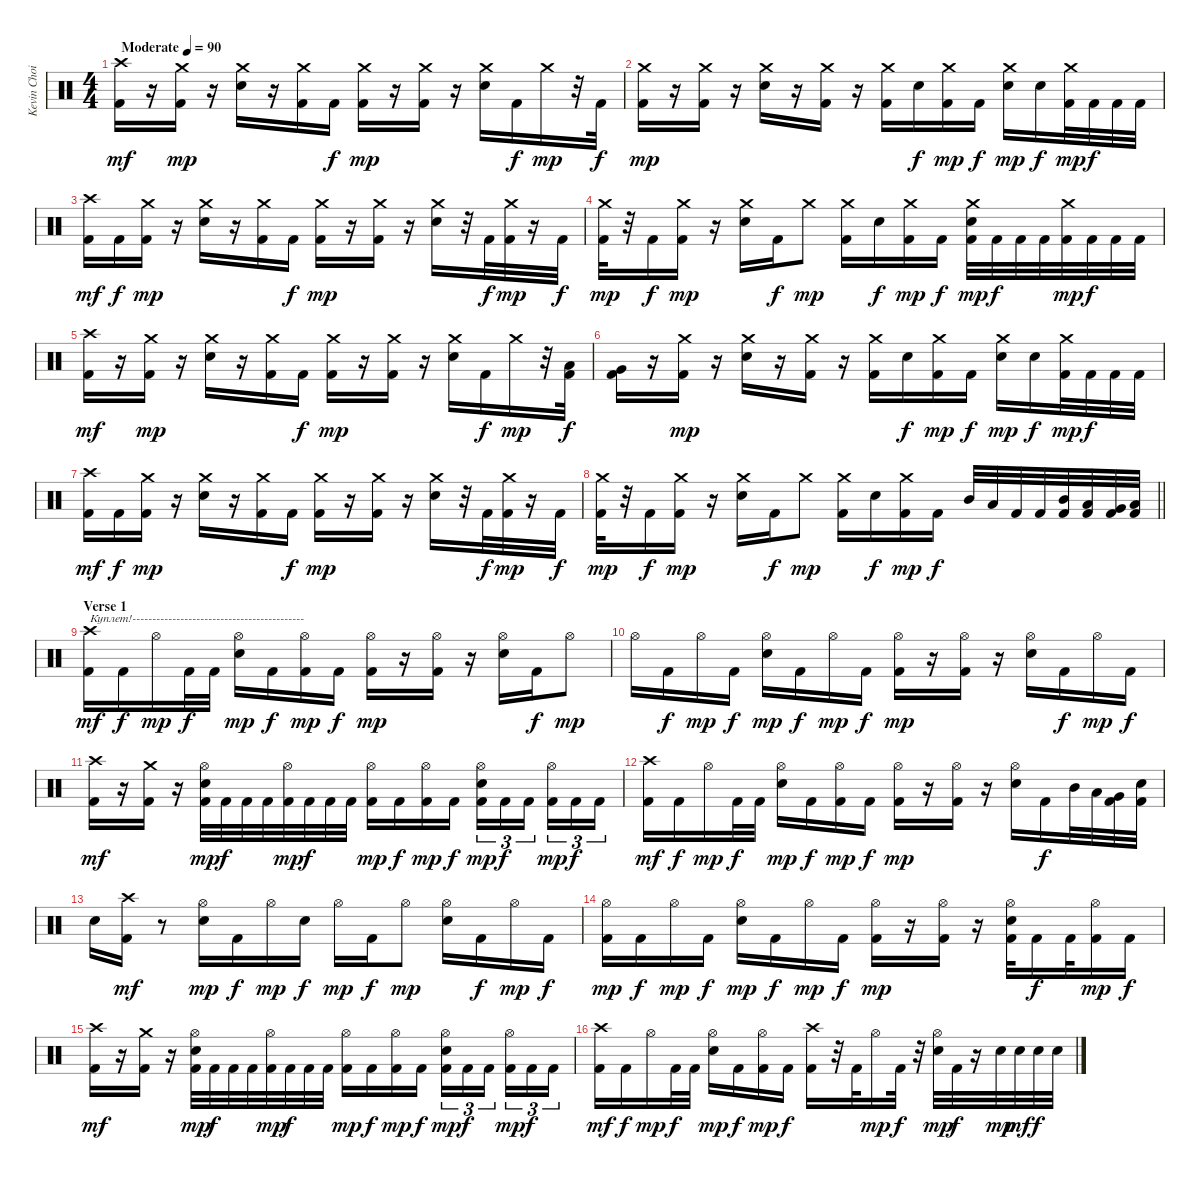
\track ("Kevin Choiral" "Kevin Choi") {instrument percussion}
\staff
\articulation defaults
\ts (4 4)
\tempo (90 "Moderate")
\clef neutral
\ks c
("Crash high (hit)" "Kick (hit) 2").16{dy mf} r.16 ("Crash medium (hit)" "Kick (hit) 2").16{dy mp} r.16 ("Crash medium (hit)" "Electric Snare (hit)").16 r.16 ("Crash medium (hit)" "Kick (hit) 2").16 "Kick (hit) 2".16{dy f} ("Crash medium (hit)" "Kick (hit) 2").16{dy mp} r.16 ("Crash medium (hit)" "Kick (hit) 2").16 r.16 ("Crash medium (hit)" "Electric Snare (hit)").16 "Kick (hit) 2".16{dy f} "Crash medium (hit)".16{dy mp} r.32 "Kick (hit) 2".32{dy f} |
("Crash medium (hit)" "Kick (hit) 2").16{dy mp} r.16 ("Crash medium (hit)" "Kick (hit) 2").16 r.16 ("Crash medium (hit)" "Electric Snare (hit)").16 r.16 ("Crash medium (hit)" "Kick (hit) 2").16 r.16 ("Crash medium (hit)" "Kick (hit) 2").16 "Electric Snare (hit)".16{dy f} ("Crash medium (hit)" "Kick (hit) 2").16{dy mp} "Kick (hit) 2".16{dy f} ("Crash medium (hit)" "Electric Snare (hit)").16{dy mp} "Electric Snare (hit)".16{dy f} ("Crash medium (hit)" "Kick (hit) 2").32{dy mp} "Kick (hit) 2".32{dy f} "Kick (hit) 2".32 "Kick (hit) 2".32 |
("Crash high (hit)" "Kick (hit) 2").16{dy mf} "Kick (hit) 2".16{dy f} ("Crash medium (hit)" "Kick (hit) 2").16{dy mp} r.16 ("Crash medium (hit)" "Electric Snare (hit)").16 r.16 ("Crash medium (hit)" "Kick (hit) 2").16 "Kick (hit) 2".16{dy f} ("Crash medium (hit)" "Kick (hit) 2").16{dy mp} r.16 ("Crash medium (hit)" "Kick (hit) 2").16 r.16 ("Crash medium (hit)" "Electric Snare (hit)").16 r.32 "Kick (hit) 2".32{dy f} ("Crash medium (hit)" "Kick (hit) 2").32{dy mp} r.16 "Kick (hit) 2".32{dy f} |
("Crash medium (hit)" "Kick (hit) 2").32{dy mp} r.32 "Kick (hit) 2".16{dy f} ("Crash medium (hit)" "Kick (hit) 2").16{dy mp} r.16 ("Crash medium (hit)" "Electric Snare (hit)").16 "Kick (hit) 2".16{dy f} "Crash medium (hit)".8{dy mp} ("Crash medium (hit)" "Kick (hit) 2").16 "Electric Snare (hit)".16{dy f} ("Crash medium (hit)" "Kick (hit) 2").16{dy mp} "Kick (hit) 2".16{dy f} ("Crash medium (hit)" "Electric Snare (hit)" "Kick (hit) 2").32{dy mp} "Kick (hit) 2".32{dy f} "Kick (hit) 2".32 "Kick (hit) 2".32 ("Crash medium (hit)" "Kick (hit) 2").32{dy mp} "Kick (hit) 2".32{dy f} "Kick (hit) 2".32 "Kick (hit) 2".32 |
("Crash high (hit)" "Kick (hit) 2").16{dy mf} r.16 ("Crash medium (hit)" "Kick (hit) 2").16{dy mp} r.16 ("Crash medium (hit)" "Electric Snare (hit)").16 r.16 ("Crash medium (hit)" "Kick (hit) 2").16 "Kick (hit) 2".16{dy f} ("Crash medium (hit)" "Kick (hit) 2").16{dy mp} r.16 ("Crash medium (hit)" "Kick (hit) 2").16 r.16 ("Crash medium (hit)" "Electric Snare (hit)").16 "Kick (hit) 2".16{dy f} "Crash medium (hit)".16{dy mp} r.32 ("Low Tom (hit)" "Kick (hit) 2").32{dy f} |
("Very Low Tom (hit)" "Kick (hit) 2").16 r.16 ("Crash medium (hit)" "Kick (hit) 2").16{dy mp} r.16 ("Crash medium (hit)" "Electric Snare (hit)").16 r.16 ("Crash medium (hit)" "Kick (hit) 2").16 r.16 ("Crash medium (hit)" "Kick (hit) 2").16 "Electric Snare (hit)".16{dy f} ("Crash medium (hit)" "Kick (hit) 2").16{dy mp} "Kick (hit) 2".16{dy f} ("Crash medium (hit)" "Electric Snare (hit)").16{dy mp} "Electric Snare (hit)".16{dy f} ("Crash medium (hit)" "Kick (hit) 2").32{dy mp} "Kick (hit) 2".32{dy f} "Kick (hit) 2".32 "Kick (hit) 2".32 |
("Crash high (hit)" "Kick (hit) 2").16{dy mf} "Kick (hit) 2".16{dy f} ("Crash medium (hit)" "Kick (hit) 2").16{dy mp} r.16 ("Crash medium (hit)" "Electric Snare (hit)").16 r.16 ("Crash medium (hit)" "Kick (hit) 2").16 "Kick (hit) 2".16{dy f} ("Crash medium (hit)" "Kick (hit) 2").16{dy mp} r.16 ("Crash medium (hit)" "Kick (hit) 2").16 r.16 ("Crash medium (hit)" "Electric Snare (hit)").16 r.32 "Kick (hit) 2".32{dy f} ("Crash medium (hit)" "Kick (hit) 2").32{dy mp} r.16 "Kick (hit) 2".32{dy f} |
\barLineRight lightlight
("Crash medium (hit)" "Kick (hit) 2").32{dy mp} r.32 "Kick (hit) 2".16{dy f} ("Crash medium (hit)" "Kick (hit) 2").16{dy mp} r.16 ("Crash medium (hit)" "Electric Snare (hit)").16 "Kick (hit) 2".16{dy f} "Crash medium (hit)".8{dy mp} ("Crash medium (hit)" "Kick (hit) 2").16 "Electric Snare (hit)".16{dy f} ("Crash medium (hit)" "Kick (hit) 2").16{dy mp} "Kick (hit) 2".16{dy f} "Mid Tom (hit)".32 "Low Tom (hit)".32 "Kick (hit) 2".32 "Kick (hit) 2".32 ("Mid Tom (hit)" "Kick (hit) 2").32 ("Low Tom (hit)" "Kick (hit) 2").32 ("Very Low Tom (hit)" "Kick (hit) 2").32 ("Low Floor Tom (hit)" "Kick (hit) 2").32 |
\section ("" "Verse 1")
("Crash high (hit)" "Kick (hit) 2").16{txt "Куплет!-------------------------------------------" dy mf} "Kick (hit) 2".16{dy f} "Hi-Hat (open)".16{dy mp} "Kick (hit) 2".32{dy f} "Kick (hit) 2".32 ("Hi-Hat (open)" "Electric Snare (hit)").16{dy mp} "Kick (hit) 2".16{dy f} ("Hi-Hat (open)" "Kick (hit) 2").16{dy mp} "Kick (hit) 2".16{dy f} ("Hi-Hat (open)" "Kick (hit) 2").16{dy mp} r.16 ("Hi-Hat (open)" "Kick (hit) 2").16 r.16 ("Hi-Hat (open)" "Electric Snare (hit)").16 "Kick (hit) 2".16{dy f} "Hi-Hat (open)".8{dy mp} |
"Hi-Hat (open)".16 "Kick (hit) 2".16{dy f} "Hi-Hat (open)".16{dy mp} "Kick (hit) 2".16{dy f} ("Hi-Hat (open)" "Electric Snare (hit)").16{dy mp} "Kick (hit) 2".16{dy f} "Hi-Hat (open)".16{dy mp} "Kick (hit) 2".16{dy f} ("Hi-Hat (open)" "Kick (hit) 2").16{dy mp} r.16 ("Hi-Hat (open)" "Kick (hit) 2").16 r.16 ("Hi-Hat (open)" "Electric Snare (hit)").16 "Kick (hit) 2".16{dy f} "Hi-Hat (open)".16{dy mp} "Kick (hit) 2".16{dy f} |
("Crash high (hit)" "Kick (hit) 2").16{dy mf} r.16 ("Crash medium (hit)" "Kick (hit) 2").16 r.16 ("Hi-Hat (open)" "Electric Snare (hit)" "Kick (hit) 2").32{dy mp} "Kick (hit) 2".32{dy f} "Kick (hit) 2".32 "Kick (hit) 2".32 ("Hi-Hat (open)" "Kick (hit) 2").32{dy mp} "Kick (hit) 2".32{dy f} "Kick (hit) 2".32 "Kick (hit) 2".32 ("Hi-Hat (open)" "Kick (hit) 2").16{dy mp} "Kick (hit) 2".16{dy f} ("Hi-Hat (open)" "Kick (hit) 2").16{dy mp} "Kick (hit) 2".16{dy f} ("Hi-Hat (open)" "Electric Snare (hit)" "Kick (hit) 2").16{tu (3 2) dy mp} "Kick (hit) 2".16{tu (3 2) dy f} "Kick (hit) 2".16{tu (3 2) beam splitsecondary} ("Hi-Hat (open)" "Kick (hit) 2").16{tu (3 2) dy mp} "Kick (hit) 2".16{tu (3 2) dy f} "Kick (hit) 2".16{tu (3 2)} |
("Crash high (hit)" "Kick (hit) 2").16{dy mf} "Kick (hit) 2".16{dy f} "Hi-Hat (open)".16{dy mp} "Kick (hit) 2".32{dy f} "Kick (hit) 2".32 ("Hi-Hat (open)" "Electric Snare (hit)").16{dy mp} "Kick (hit) 2".16{dy f} ("Hi-Hat (open)" "Kick (hit) 2").16{dy mp} "Kick (hit) 2".16{dy f} ("Hi-Hat (open)" "Kick (hit) 2").16{dy mp} r.16 ("Hi-Hat (open)" "Kick (hit) 2").16 r.16 ("Hi-Hat (open)" "Electric Snare (hit)").16 "Kick (hit) 2".16{dy f} "Mid Tom (hit)".32 "Low Tom (hit)".32 ("Very Low Tom (hit)" "Kick (hit) 2").32 ("Electric Snare (hit)" "Kick (hit) 2").32 |
"Electric Snare (hit)".16 ("Crash high (hit)" "Kick (hit) 2").16{dy mf} r.8 ("Hi-Hat (open)" "Electric Snare (hit)").16{dy mp} "Kick (hit) 2".16{dy f} "Hi-Hat (open)".16{dy mp} "Electric Snare (hit)".16{dy f} "Hi-Hat (open)".16{dy mp} "Kick (hit) 2".16{dy f} "Hi-Hat (open)".8{dy mp} ("Hi-Hat (open)" "Electric Snare (hit)").16 "Kick (hit) 2".16{dy f} "Hi-Hat (open)".16{dy mp} "Kick (hit) 2".16{dy f} |
("Hi-Hat (open)" "Kick (hit) 2").16{dy mp} "Kick (hit) 2".16{dy f} "Hi-Hat (open)".16{dy mp} "Kick (hit) 2".16{dy f} ("Hi-Hat (open)" "Electric Snare (hit)").16{dy mp} "Kick (hit) 2".16{dy f} "Hi-Hat (open)".16{dy mp} "Kick (hit) 2".16{dy f} ("Hi-Hat (open)" "Kick (hit) 2").16{dy mp} r.16 ("Hi-Hat (open)" "Kick (hit) 2").16 r.16 ("Hi-Hat (open)" "Electric Snare (hit)" "Kick (hit) 2").32 "Kick (hit) 2".16{dy f} "Kick (hit) 2".32 ("Hi-Hat (open)" "Kick (hit) 2").16{dy mp} "Kick (hit) 2".16{dy f} |
("Crash high (hit)" "Kick (hit) 2").16{dy mf} r.16 ("Crash medium (hit)" "Kick (hit) 2").16 r.16 ("Hi-Hat (open)" "Electric Snare (hit)" "Kick (hit) 2").32{dy mp} "Kick (hit) 2".32{dy f} "Kick (hit) 2".32 "Kick (hit) 2".32 ("Hi-Hat (open)" "Kick (hit) 2").32{dy mp} "Kick (hit) 2".32{dy f} "Kick (hit) 2".32 "Kick (hit) 2".32 ("Hi-Hat (open)" "Kick (hit) 2").16{dy mp} "Kick (hit) 2".16{dy f} ("Hi-Hat (open)" "Kick (hit) 2").16{dy mp} "Kick (hit) 2".16{dy f} ("Hi-Hat (open)" "Electric Snare (hit)" "Kick (hit) 2").16{tu (3 2) dy mp} "Kick (hit) 2".16{tu (3 2) dy f} "Kick (hit) 2".16{tu (3 2) beam splitsecondary} ("Hi-Hat (open)" "Kick (hit) 2").16{tu (3 2) dy mp} "Kick (hit) 2".16{tu (3 2) dy f} "Kick (hit) 2".16{tu (3 2)} |
("Crash high (hit)" "Kick (hit) 2").16{dy mf} "Kick (hit) 2".16{dy f} "Hi-Hat (open)".16{dy mp} "Kick (hit) 2".32{dy f} "Kick (hit) 2".32 ("Hi-Hat (open)" "Electric Snare (hit)").16{dy mp} "Kick (hit) 2".16{dy f} ("Hi-Hat (open)" "Kick (hit) 2").16{dy mp} "Kick (hit) 2".16{dy f} ("Crash high (hit)" "Kick (hit) 2").16 r.32 "Kick (hit) 2".32 "Hi-Hat (open)".16{dy mp} "Kick (hit) 2".32{dy f} r.32 ("Hi-Hat (open)" "Electric Snare (hit)").32{dy mp} "Kick (hit) 2".32{dy f} r.16 "Electric Snare (hit)".32{dy mp} "Electric Snare (hit)".32{dy mf} "Electric Snare (hit)".32{dy f} "Electric Snare (hit)".32
